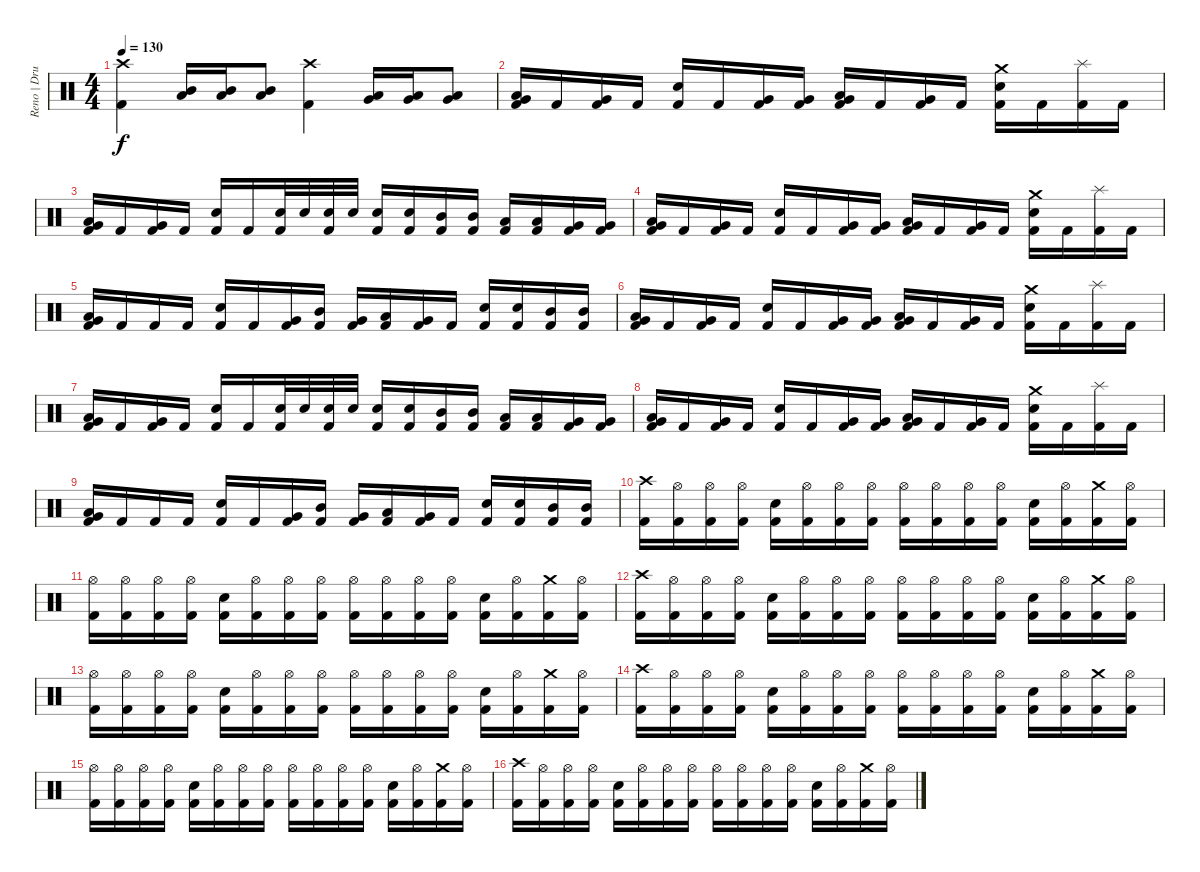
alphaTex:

\track ("Reno | Drums" "Reno | Dru") {instrument percussion}
\staff {score}
\articulation defaults
\ts (4 4)
\tempo 130
\clef neutral
\ks c
("Crash high (hit)" "Kick (hit) 2").4{dy f} ("Mid Tom (hit)" "Low Tom (hit)").16 ("Mid Tom (hit)" "Low Tom (hit)").16 ("Mid Tom (hit)" "Low Tom (hit)").8 ("Crash high (hit)" "Kick (hit) 2").4 ("Low Tom (hit)" "Very Low Tom (hit)").16 ("Low Tom (hit)" "Very Low Tom (hit)").16 ("Low Tom (hit)" "Very Low Tom (hit)").8 |
("Low Tom (hit)" "Very Low Tom (hit)" "Kick (hit) 2").16 "Kick (hit) 2".16 ("Very Low Tom (hit)" "Kick (hit) 2").16 "Kick (hit) 2".16 ("Electric Snare (hit)" "Kick (hit) 2").16 "Kick (hit) 2".16 ("Very Low Tom (hit)" "Kick (hit) 2").16 ("Very Low Tom (hit)" "Kick (hit) 2").16 ("Low Tom (hit)" "Very Low Tom (hit)" "Kick (hit) 2").16 "Kick (hit) 2".16 ("Very Low Tom (hit)" "Kick (hit) 2").16 "Kick (hit) 2".16 ("Crash medium (hit)" "Electric Snare (hit)" "Kick (hit) 2").16 "Kick (hit) 2".16 ("Splash (hit)" "Kick (hit) 2").16 "Kick (hit) 2".16 |
("Low Tom (hit)" "Very Low Tom (hit)" "Kick (hit) 2").16 "Kick (hit) 2".16 ("Very Low Tom (hit)" "Kick (hit) 2").16 "Kick (hit) 2".16 ("Electric Snare (hit)" "Kick (hit) 2").16 "Kick (hit) 2".16 ("Electric Snare (hit)" "Kick (hit) 2").32 "Electric Snare (hit)".32 ("Electric Snare (hit)" "Kick (hit) 2").32 "Electric Snare (hit)".32 ("Electric Snare (hit)" "Kick (hit) 2").16 ("Electric Snare (hit)" "Kick (hit) 2").16 ("Mid Tom (hit)" "Kick (hit) 2").16 ("Mid Tom (hit)" "Kick (hit) 2").16 ("Low Tom (hit)" "Kick (hit) 2").16 ("Low Tom (hit)" "Kick (hit) 2").16 ("Very Low Tom (hit)" "Kick (hit) 2").16 ("Very Low Tom (hit)" "Kick (hit) 2").16 |
("Low Tom (hit)" "Very Low Tom (hit)" "Kick (hit) 2").16 "Kick (hit) 2".16 ("Very Low Tom (hit)" "Kick (hit) 2").16 "Kick (hit) 2".16 ("Electric Snare (hit)" "Kick (hit) 2").16 "Kick (hit) 2".16 ("Very Low Tom (hit)" "Kick (hit) 2").16 ("Very Low Tom (hit)" "Kick (hit) 2").16 ("Low Tom (hit)" "Very Low Tom (hit)" "Kick (hit) 2").16 "Kick (hit) 2".16 ("Very Low Tom (hit)" "Kick (hit) 2").16 "Kick (hit) 2".16 ("Crash medium (hit)" "Electric Snare (hit)" "Kick (hit) 2").16 "Kick (hit) 2".16 ("Splash (hit)" "Kick (hit) 2").16 "Kick (hit) 2".16 |
("Low Tom (hit)" "Very Low Tom (hit)" "Kick (hit) 2").16 "Kick (hit) 2".16 "Kick (hit) 2".16 "Kick (hit) 2".16 ("Electric Snare (hit)" "Kick (hit) 2").16 "Kick (hit) 2".16 ("Very Low Tom (hit)" "Kick (hit) 2").16 ("Mid Tom (hit)" "Kick (hit) 2").16 ("Very Low Tom (hit)" "Kick (hit) 2").16 ("Low Tom (hit)" "Kick (hit) 2").16 ("Very Low Tom (hit)" "Kick (hit) 2").16 "Kick (hit) 2".16 ("Electric Snare (hit)" "Kick (hit) 2").16 ("Electric Snare (hit)" "Kick (hit) 2").16 ("Mid Tom (hit)" "Kick (hit) 2").16 ("Mid Tom (hit)" "Kick (hit) 2").16 |
("Low Tom (hit)" "Very Low Tom (hit)" "Kick (hit) 2").16 "Kick (hit) 2".16 ("Very Low Tom (hit)" "Kick (hit) 2").16 "Kick (hit) 2".16 ("Electric Snare (hit)" "Kick (hit) 2").16 "Kick (hit) 2".16 ("Very Low Tom (hit)" "Kick (hit) 2").16 ("Very Low Tom (hit)" "Kick (hit) 2").16 ("Low Tom (hit)" "Very Low Tom (hit)" "Kick (hit) 2").16 "Kick (hit) 2".16 ("Very Low Tom (hit)" "Kick (hit) 2").16 "Kick (hit) 2".16 ("Crash medium (hit)" "Electric Snare (hit)" "Kick (hit) 2").16 "Kick (hit) 2".16 ("Splash (hit)" "Kick (hit) 2").16 "Kick (hit) 2".16 |
("Low Tom (hit)" "Very Low Tom (hit)" "Kick (hit) 2").16 "Kick (hit) 2".16 ("Very Low Tom (hit)" "Kick (hit) 2").16 "Kick (hit) 2".16 ("Electric Snare (hit)" "Kick (hit) 2").16 "Kick (hit) 2".16 ("Electric Snare (hit)" "Kick (hit) 2").32 "Electric Snare (hit)".32 ("Electric Snare (hit)" "Kick (hit) 2").32 "Electric Snare (hit)".32 ("Electric Snare (hit)" "Kick (hit) 2").16 ("Electric Snare (hit)" "Kick (hit) 2").16 ("Mid Tom (hit)" "Kick (hit) 2").16 ("Mid Tom (hit)" "Kick (hit) 2").16 ("Low Tom (hit)" "Kick (hit) 2").16 ("Low Tom (hit)" "Kick (hit) 2").16 ("Very Low Tom (hit)" "Kick (hit) 2").16 ("Very Low Tom (hit)" "Kick (hit) 2").16 |
("Low Tom (hit)" "Very Low Tom (hit)" "Kick (hit) 2").16 "Kick (hit) 2".16 ("Very Low Tom (hit)" "Kick (hit) 2").16 "Kick (hit) 2".16 ("Electric Snare (hit)" "Kick (hit) 2").16 "Kick (hit) 2".16 ("Very Low Tom (hit)" "Kick (hit) 2").16 ("Very Low Tom (hit)" "Kick (hit) 2").16 ("Low Tom (hit)" "Very Low Tom (hit)" "Kick (hit) 2").16 "Kick (hit) 2".16 ("Very Low Tom (hit)" "Kick (hit) 2").16 "Kick (hit) 2".16 ("Crash medium (hit)" "Electric Snare (hit)" "Kick (hit) 2").16 "Kick (hit) 2".16 ("Splash (hit)" "Kick (hit) 2").16 "Kick (hit) 2".16 |
("Low Tom (hit)" "Very Low Tom (hit)" "Kick (hit) 2").16 "Kick (hit) 2".16 "Kick (hit) 2".16 "Kick (hit) 2".16 ("Electric Snare (hit)" "Kick (hit) 2").16 "Kick (hit) 2".16 ("Very Low Tom (hit)" "Kick (hit) 2").16 ("Mid Tom (hit)" "Kick (hit) 2").16 ("Very Low Tom (hit)" "Kick (hit) 2").16 ("Low Tom (hit)" "Kick (hit) 2").16 ("Very Low Tom (hit)" "Kick (hit) 2").16 "Kick (hit) 2".16 ("Electric Snare (hit)" "Kick (hit) 2").16 ("Electric Snare (hit)" "Kick (hit) 2").16 ("Mid Tom (hit)" "Kick (hit) 2").16 ("Mid Tom (hit)" "Kick (hit) 2").16 |
("Crash high (hit)" "Kick (hit) 2").16 ("Hi-Hat (open)" "Kick (hit) 2").16 ("Hi-Hat (open)" "Kick (hit) 2").16 ("Hi-Hat (open)" "Kick (hit) 2").16 ("Electric Snare (hit)" "Kick (hit) 2").16 ("Hi-Hat (open)" "Kick (hit) 2").16 ("Hi-Hat (open)" "Kick (hit) 2").16 ("Hi-Hat (open)" "Kick (hit) 2").16 ("Hi-Hat (open)" "Kick (hit) 2").16 ("Hi-Hat (open)" "Kick (hit) 2").16 ("Hi-Hat (open)" "Kick (hit) 2").16 ("Hi-Hat (open)" "Kick (hit) 2").16 ("Electric Snare (hit)" "Kick (hit) 2").16 ("Hi-Hat (open)" "Kick (hit) 2").16 ("Crash medium (hit)" "Kick (hit) 2").16 ("Hi-Hat (open)" "Kick (hit) 2").16 |
("Hi-Hat (open)" "Kick (hit) 2").16 ("Hi-Hat (open)" "Kick (hit) 2").16 ("Hi-Hat (open)" "Kick (hit) 2").16 ("Hi-Hat (open)" "Kick (hit) 2").16 ("Electric Snare (hit)" "Kick (hit) 2").16 ("Hi-Hat (open)" "Kick (hit) 2").16 ("Hi-Hat (open)" "Kick (hit) 2").16 ("Hi-Hat (open)" "Kick (hit) 2").16 ("Hi-Hat (open)" "Kick (hit) 2").16 ("Hi-Hat (open)" "Kick (hit) 2").16 ("Hi-Hat (open)" "Kick (hit) 2").16 ("Hi-Hat (open)" "Kick (hit) 2").16 ("Electric Snare (hit)" "Kick (hit) 2").16 ("Hi-Hat (open)" "Kick (hit) 2").16 ("Crash medium (hit)" "Kick (hit) 2").16 ("Hi-Hat (open)" "Kick (hit) 2").16 |
("Crash high (hit)" "Kick (hit) 2").16 ("Hi-Hat (open)" "Kick (hit) 2").16 ("Hi-Hat (open)" "Kick (hit) 2").16 ("Hi-Hat (open)" "Kick (hit) 2").16 ("Electric Snare (hit)" "Kick (hit) 2").16 ("Hi-Hat (open)" "Kick (hit) 2").16 ("Hi-Hat (open)" "Kick (hit) 2").16 ("Hi-Hat (open)" "Kick (hit) 2").16 ("Hi-Hat (open)" "Kick (hit) 2").16 ("Hi-Hat (open)" "Kick (hit) 2").16 ("Hi-Hat (open)" "Kick (hit) 2").16 ("Hi-Hat (open)" "Kick (hit) 2").16 ("Electric Snare (hit)" "Kick (hit) 2").16 ("Hi-Hat (open)" "Kick (hit) 2").16 ("Crash medium (hit)" "Kick (hit) 2").16 ("Hi-Hat (open)" "Kick (hit) 2").16 |
("Hi-Hat (open)" "Kick (hit) 2").16 ("Hi-Hat (open)" "Kick (hit) 2").16 ("Hi-Hat (open)" "Kick (hit) 2").16 ("Hi-Hat (open)" "Kick (hit) 2").16 ("Electric Snare (hit)" "Kick (hit) 2").16 ("Hi-Hat (open)" "Kick (hit) 2").16 ("Hi-Hat (open)" "Kick (hit) 2").16 ("Hi-Hat (open)" "Kick (hit) 2").16 ("Hi-Hat (open)" "Kick (hit) 2").16 ("Hi-Hat (open)" "Kick (hit) 2").16 ("Hi-Hat (open)" "Kick (hit) 2").16 ("Hi-Hat (open)" "Kick (hit) 2").16 ("Electric Snare (hit)" "Kick (hit) 2").16 ("Hi-Hat (open)" "Kick (hit) 2").16 ("Crash medium (hit)" "Kick (hit) 2").16 ("Hi-Hat (open)" "Kick (hit) 2").16 |
("Crash high (hit)" "Kick (hit) 2").16 ("Hi-Hat (open)" "Kick (hit) 2").16 ("Hi-Hat (open)" "Kick (hit) 2").16 ("Hi-Hat (open)" "Kick (hit) 2").16 ("Electric Snare (hit)" "Kick (hit) 2").16 ("Hi-Hat (open)" "Kick (hit) 2").16 ("Hi-Hat (open)" "Kick (hit) 2").16 ("Hi-Hat (open)" "Kick (hit) 2").16 ("Hi-Hat (open)" "Kick (hit) 2").16 ("Hi-Hat (open)" "Kick (hit) 2").16 ("Hi-Hat (open)" "Kick (hit) 2").16 ("Hi-Hat (open)" "Kick (hit) 2").16 ("Electric Snare (hit)" "Kick (hit) 2").16 ("Hi-Hat (open)" "Kick (hit) 2").16 ("Crash medium (hit)" "Kick (hit) 2").16 ("Hi-Hat (open)" "Kick (hit) 2").16 |
("Hi-Hat (open)" "Kick (hit) 2").16 ("Hi-Hat (open)" "Kick (hit) 2").16 ("Hi-Hat (open)" "Kick (hit) 2").16 ("Hi-Hat (open)" "Kick (hit) 2").16 ("Electric Snare (hit)" "Kick (hit) 2").16 ("Hi-Hat (open)" "Kick (hit) 2").16 ("Hi-Hat (open)" "Kick (hit) 2").16 ("Hi-Hat (open)" "Kick (hit) 2").16 ("Hi-Hat (open)" "Kick (hit) 2").16 ("Hi-Hat (open)" "Kick (hit) 2").16 ("Hi-Hat (open)" "Kick (hit) 2").16 ("Hi-Hat (open)" "Kick (hit) 2").16 ("Electric Snare (hit)" "Kick (hit) 2").16 ("Hi-Hat (open)" "Kick (hit) 2").16 ("Crash medium (hit)" "Kick (hit) 2").16 ("Hi-Hat (open)" "Kick (hit) 2").16 |
("Crash high (hit)" "Kick (hit) 2").16 ("Hi-Hat (open)" "Kick (hit) 2").16 ("Hi-Hat (open)" "Kick (hit) 2").16 ("Hi-Hat (open)" "Kick (hit) 2").16 ("Electric Snare (hit)" "Kick (hit) 2").16 ("Hi-Hat (open)" "Kick (hit) 2").16 ("Hi-Hat (open)" "Kick (hit) 2").16 ("Hi-Hat (open)" "Kick (hit) 2").16 ("Hi-Hat (open)" "Kick (hit) 2").16 ("Hi-Hat (open)" "Kick (hit) 2").16 ("Hi-Hat (open)" "Kick (hit) 2").16 ("Hi-Hat (open)" "Kick (hit) 2").16 ("Electric Snare (hit)" "Kick (hit) 2").16 ("Hi-Hat (open)" "Kick (hit) 2").16 ("Crash medium (hit)" "Kick (hit) 2").16 ("Hi-Hat (open)" "Kick (hit) 2").16
